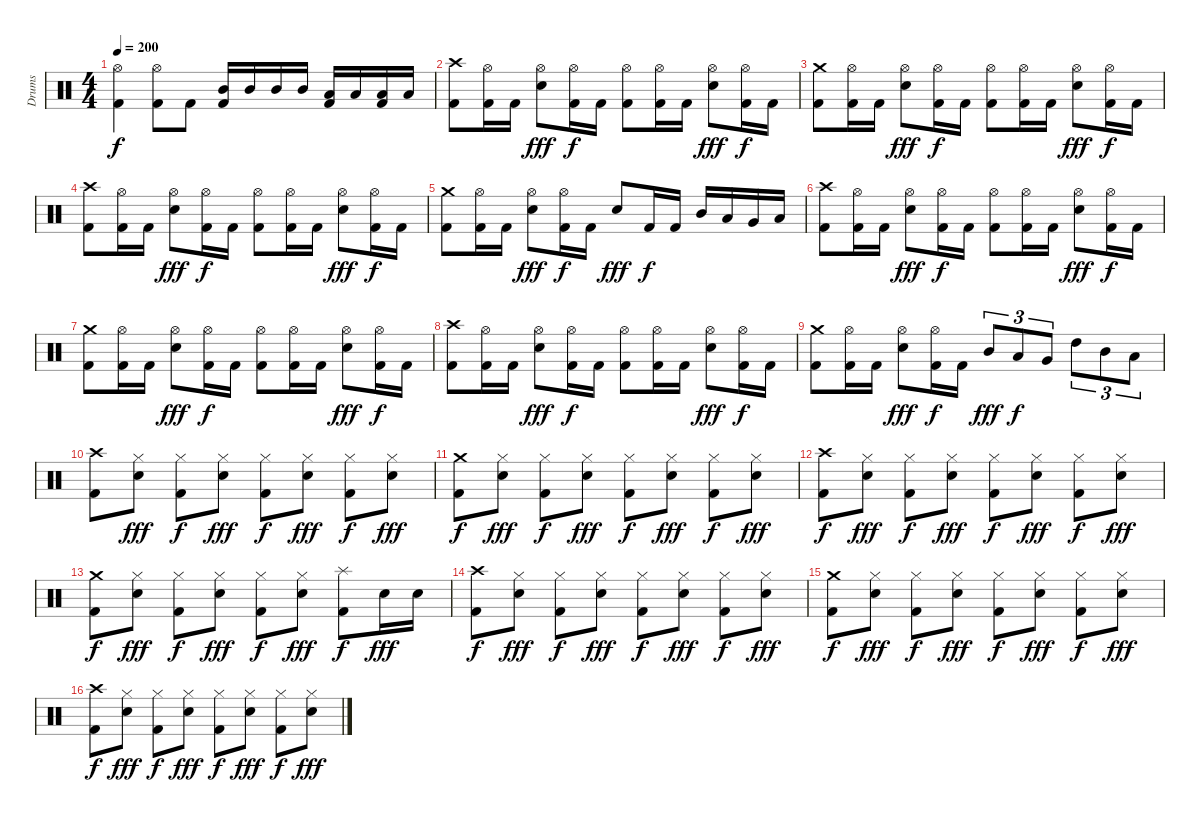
\track ("Drums" "Drums") {instrument percussion}
\staff {score}
\articulation defaults
\ts (4 4)
\tempo 200
\clef neutral
\ks c
("Hi-Hat (open)" "Kick (hit) 2").4{dy f} ("Hi-Hat (open)" "Kick (hit) 2").8 "Kick (hit) 2".8 ("Mid Tom (hit)" "Kick (hit) 2").16 "Mid Tom (hit)".16 "Mid Tom (hit)".16 "Mid Tom (hit)".16 ("Low Tom (hit)" "Kick (hit) 2").16 "Low Tom (hit)".16 ("Low Tom (hit)" "Kick (hit) 2").16 "Low Tom (hit)".16 |
("Crash high (hit)" "Kick (hit) 2").8 ("Hi-Hat (open)" "Kick (hit) 2").16 "Kick (hit) 2".16 ("Hi-Hat (open)" "Snare (hit) 2").8{dy fff} ("Hi-Hat (open)" "Kick (hit) 2").16{dy f} "Kick (hit) 2".16 ("Hi-Hat (open)" "Kick (hit) 2").8 ("Hi-Hat (open)" "Kick (hit) 2").16 "Kick (hit) 2".16 ("Hi-Hat (open)" "Snare (hit) 2").8{dy fff} ("Hi-Hat (open)" "Kick (hit) 2").16{dy f} "Kick (hit) 2".16 |
("Crash medium (hit)" "Kick (hit) 2").8 ("Hi-Hat (open)" "Kick (hit) 2").16 "Kick (hit) 2".16 ("Hi-Hat (open)" "Snare (hit) 2").8{dy fff} ("Hi-Hat (open)" "Kick (hit) 2").16{dy f} "Kick (hit) 2".16 ("Hi-Hat (open)" "Kick (hit) 2").8 ("Hi-Hat (open)" "Kick (hit) 2").16 "Kick (hit) 2".16 ("Hi-Hat (open)" "Snare (hit) 2").8{dy fff} ("Hi-Hat (open)" "Kick (hit) 2").16{dy f} "Kick (hit) 2".16 |
("Crash high (hit)" "Kick (hit) 2").8 ("Hi-Hat (open)" "Kick (hit) 2").16 "Kick (hit) 2".16 ("Hi-Hat (open)" "Snare (hit) 2").8{dy fff} ("Hi-Hat (open)" "Kick (hit) 2").16{dy f} "Kick (hit) 2".16 ("Hi-Hat (open)" "Kick (hit) 2").8 ("Hi-Hat (open)" "Kick (hit) 2").16 "Kick (hit) 2".16 ("Hi-Hat (open)" "Snare (hit) 2").8{dy fff} ("Hi-Hat (open)" "Kick (hit) 2").16{dy f} "Kick (hit) 2".16 |
("Crash medium (hit)" "Kick (hit) 2").8 ("Hi-Hat (open)" "Kick (hit) 2").16 "Kick (hit) 2".16 ("Hi-Hat (open)" "Snare (hit) 2").8{dy fff} ("Hi-Hat (open)" "Kick (hit) 2").16{dy f} "Kick (hit) 2".16 "Snare (hit) 2".8{dy fff} "Kick (hit) 2".16{dy f} "Kick (hit) 2".16 "Mid Tom (hit)".16 "Low Tom (hit)".16 "Very Low Tom (hit)".16 "Low Floor Tom (hit)".16 |
("Crash high (hit)" "Kick (hit) 2").8 ("Hi-Hat (open)" "Kick (hit) 2").16 "Kick (hit) 2".16 ("Hi-Hat (open)" "Snare (hit) 2").8{dy fff} ("Hi-Hat (open)" "Kick (hit) 2").16{dy f} "Kick (hit) 2".16 ("Hi-Hat (open)" "Kick (hit) 2").8 ("Hi-Hat (open)" "Kick (hit) 2").16 "Kick (hit) 2".16 ("Hi-Hat (open)" "Snare (hit) 2").8{dy fff} ("Hi-Hat (open)" "Kick (hit) 2").16{dy f} "Kick (hit) 2".16 |
("Crash medium (hit)" "Kick (hit) 2").8 ("Hi-Hat (open)" "Kick (hit) 2").16 "Kick (hit) 2".16 ("Hi-Hat (open)" "Snare (hit) 2").8{dy fff} ("Hi-Hat (open)" "Kick (hit) 2").16{dy f} "Kick (hit) 2".16 ("Hi-Hat (open)" "Kick (hit) 2").8 ("Hi-Hat (open)" "Kick (hit) 2").16 "Kick (hit) 2".16 ("Hi-Hat (open)" "Snare (hit) 2").8{dy fff} ("Hi-Hat (open)" "Kick (hit) 2").16{dy f} "Kick (hit) 2".16 |
("Crash high (hit)" "Kick (hit) 2").8 ("Hi-Hat (open)" "Kick (hit) 2").16 "Kick (hit) 2".16 ("Hi-Hat (open)" "Snare (hit) 2").8{dy fff} ("Hi-Hat (open)" "Kick (hit) 2").16{dy f} "Kick (hit) 2".16 ("Hi-Hat (open)" "Kick (hit) 2").8 ("Hi-Hat (open)" "Kick (hit) 2").16 "Kick (hit) 2".16 ("Hi-Hat (open)" "Snare (hit) 2").8{dy fff} ("Hi-Hat (open)" "Kick (hit) 2").16{dy f} "Kick (hit) 2".16 |
("Crash medium (hit)" "Kick (hit) 2").8 ("Hi-Hat (open)" "Kick (hit) 2").16 "Kick (hit) 2".16 ("Hi-Hat (open)" "Snare (hit) 2").8{dy fff} ("Hi-Hat (open)" "Kick (hit) 2").16{dy f} "Kick (hit) 2".16 "Mid Tom (hit)".8{tu (3 2) dy fff} "Low Tom (hit)".8{tu (3 2) dy f} "Very Low Tom (hit)".8{tu (3 2)} "High Tom (hit)".8{tu (3 2)} "Mid Tom (hit)".8{tu (3 2)} "Low Tom (hit)".8{tu (3 2)} |
("Crash high (hit)" "Kick (hit) 2").8 ("Hi-Hat (closed)" "Snare (hit) 2").8{dy fff} ("Hi-Hat (closed)" "Kick (hit) 2").8{dy f} ("Hi-Hat (closed)" "Snare (hit) 2").8{dy fff} ("Hi-Hat (closed)" "Kick (hit) 2").8{dy f} ("Hi-Hat (closed)" "Snare (hit) 2").8{dy fff} ("Hi-Hat (closed)" "Kick (hit) 2").8{dy f} ("Hi-Hat (closed)" "Snare (hit) 2").8{dy fff} |
("Crash medium (hit)" "Kick (hit) 2").8{dy f} ("Hi-Hat (closed)" "Snare (hit) 2").8{dy fff} ("Hi-Hat (closed)" "Kick (hit) 2").8{dy f} ("Hi-Hat (closed)" "Snare (hit) 2").8{dy fff} ("Hi-Hat (closed)" "Kick (hit) 2").8{dy f} ("Hi-Hat (closed)" "Snare (hit) 2").8{dy fff} ("Hi-Hat (closed)" "Kick (hit) 2").8{dy f} ("Hi-Hat (closed)" "Snare (hit) 2").8{dy fff} |
("Crash high (hit)" "Kick (hit) 2").8{dy f} ("Hi-Hat (closed)" "Snare (hit) 2").8{dy fff} ("Hi-Hat (closed)" "Kick (hit) 2").8{dy f} ("Hi-Hat (closed)" "Snare (hit) 2").8{dy fff} ("Hi-Hat (closed)" "Kick (hit) 2").8{dy f} ("Hi-Hat (closed)" "Snare (hit) 2").8{dy fff} ("Hi-Hat (closed)" "Kick (hit) 2").8{dy f} ("Hi-Hat (closed)" "Snare (hit) 2").8{dy fff} |
("Crash medium (hit)" "Kick (hit) 2").8{dy f} ("Hi-Hat (closed)" "Snare (hit) 2").8{dy fff} ("Hi-Hat (closed)" "Kick (hit) 2").8{dy f} ("Hi-Hat (closed)" "Snare (hit) 2").8{dy fff} ("Hi-Hat (closed)" "Kick (hit) 2").8{dy f} ("Hi-Hat (closed)" "Snare (hit) 2").8{dy fff} ("Splash (hit)" "Kick (hit) 2").8{dy f} "Snare (hit) 2".16{dy fff} "Snare (hit) 2".16 |
("Crash high (hit)" "Kick (hit) 2").8{dy f} ("Hi-Hat (closed)" "Snare (hit) 2").8{dy fff} ("Hi-Hat (closed)" "Kick (hit) 2").8{dy f} ("Hi-Hat (closed)" "Snare (hit) 2").8{dy fff} ("Hi-Hat (closed)" "Kick (hit) 2").8{dy f} ("Hi-Hat (closed)" "Snare (hit) 2").8{dy fff} ("Hi-Hat (closed)" "Kick (hit) 2").8{dy f} ("Hi-Hat (closed)" "Snare (hit) 2").8{dy fff} |
("Crash medium (hit)" "Kick (hit) 2").8{dy f} ("Hi-Hat (closed)" "Snare (hit) 2").8{dy fff} ("Hi-Hat (closed)" "Kick (hit) 2").8{dy f} ("Hi-Hat (closed)" "Snare (hit) 2").8{dy fff} ("Hi-Hat (closed)" "Kick (hit) 2").8{dy f} ("Hi-Hat (closed)" "Snare (hit) 2").8{dy fff} ("Hi-Hat (closed)" "Kick (hit) 2").8{dy f} ("Hi-Hat (closed)" "Snare (hit) 2").8{dy fff} |
("Crash high (hit)" "Kick (hit) 2").8{dy f} ("Hi-Hat (closed)" "Snare (hit) 2").8{dy fff} ("Hi-Hat (closed)" "Kick (hit) 2").8{dy f} ("Hi-Hat (closed)" "Snare (hit) 2").8{dy fff} ("Hi-Hat (closed)" "Kick (hit) 2").8{dy f} ("Hi-Hat (closed)" "Snare (hit) 2").8{dy fff} ("Hi-Hat (closed)" "Kick (hit) 2").8{dy f} ("Hi-Hat (closed)" "Snare (hit) 2").8{dy fff}
